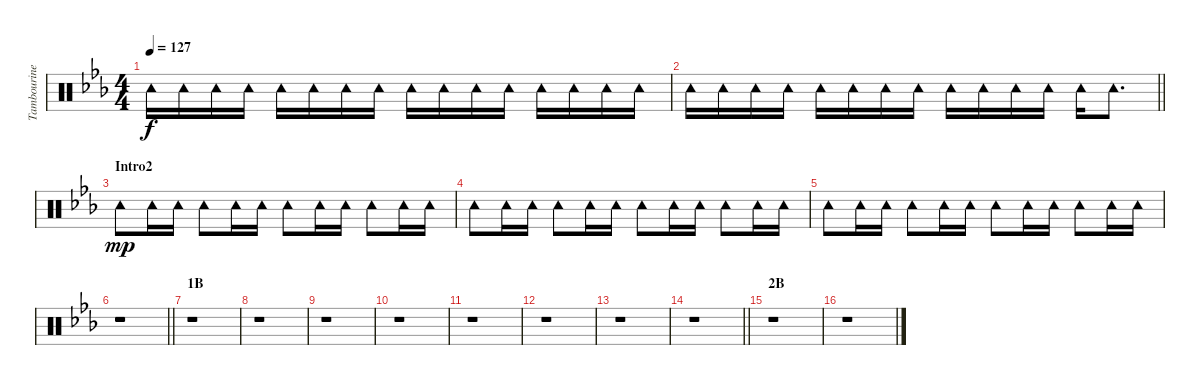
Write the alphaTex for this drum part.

\track ("Tambourine" "Tambourine") {instrument percussion}
\staff {score}
\articulation defaults
\ts (4 4)
\tempo 127
\clef neutral
\ks eb "Tambourine (hit)".16{dy f} "Tambourine (hit)".16 "Tambourine (hit)".16 "Tambourine (hit)".16 "Tambourine (hit)".16 "Tambourine (hit)".16 "Tambourine (hit)".16 "Tambourine (hit)".16 "Tambourine (hit)".16 "Tambourine (hit)".16 "Tambourine (hit)".16 "Tambourine (hit)".16 "Tambourine (hit)".16 "Tambourine (hit)".16 "Tambourine (hit)".16 "Tambourine (hit)".16
|
\barLineRight lightlight "Tambourine (hit)".16 "Tambourine (hit)".16 "Tambourine (hit)".16 "Tambourine (hit)".16 "Tambourine (hit)".16 "Tambourine (hit)".16 "Tambourine (hit)".16 "Tambourine (hit)".16 "Tambourine (hit)".16 "Tambourine (hit)".16 "Tambourine (hit)".16 "Tambourine (hit)".16 "Tambourine (hit)".16 "Tambourine (hit)".8{d}
|
\section ("" "Intro2")
"Tambourine (hit)".8{dy mp} "Tambourine (hit)".16 "Tambourine (hit)".16 "Tambourine (hit)".8 "Tambourine (hit)".16 "Tambourine (hit)".16 "Tambourine (hit)".8 "Tambourine (hit)".16 "Tambourine (hit)".16 "Tambourine (hit)".8 "Tambourine (hit)".16 "Tambourine (hit)".16 |
"Tambourine (hit)".8 "Tambourine (hit)".16 "Tambourine (hit)".16 "Tambourine (hit)".8 "Tambourine (hit)".16 "Tambourine (hit)".16 "Tambourine (hit)".8 "Tambourine (hit)".16 "Tambourine (hit)".16 "Tambourine (hit)".8 "Tambourine (hit)".16 "Tambourine (hit)".16 |
"Tambourine (hit)".8 "Tambourine (hit)".16 "Tambourine (hit)".16 "Tambourine (hit)".8 "Tambourine (hit)".16 "Tambourine (hit)".16 "Tambourine (hit)".8 "Tambourine (hit)".16 "Tambourine (hit)".16 "Tambourine (hit)".8 "Tambourine (hit)".16 "Tambourine (hit)".16 |
\barLineRight lightlight
r.1 |
\section ("" "1B")
r.1 |
r.1 |
r.1 |
r.1 |
r.1 |
r.1 |
r.1 |
\barLineRight lightlight
r.1 |
\section ("" "2B")
r.1 |
r.1
